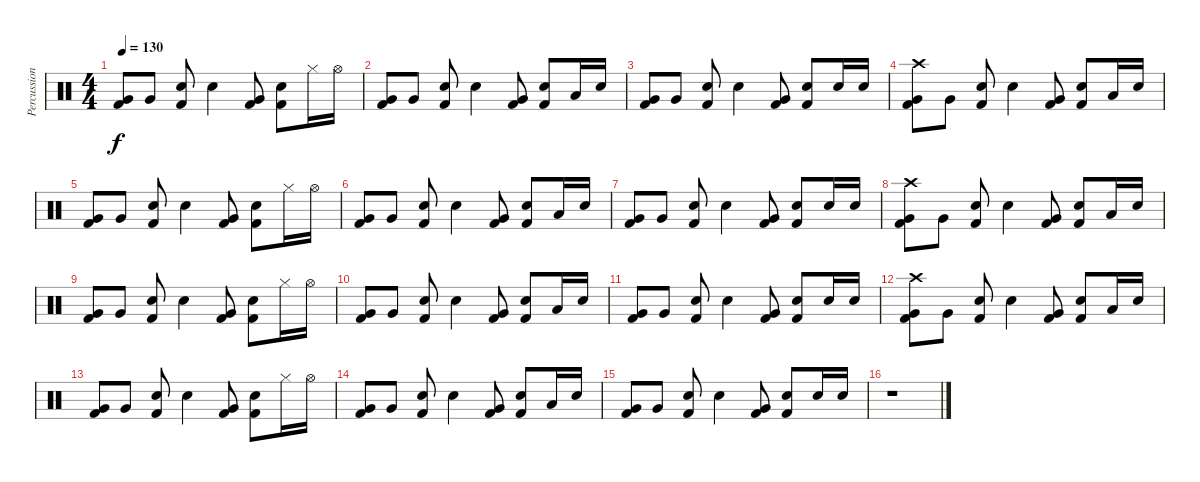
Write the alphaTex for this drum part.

\track ("Percussion" "Percussion") {instrument percussion}
\staff {score}
\articulation defaults
\ts (4 4)
\tempo 130
\clef neutral
\ks c
("Very Low Tom (hit)" "Kick (hit) 2").8{dy f} "Very Low Tom (hit)".8 ("Electric Snare (hit)" "Kick (hit) 2").8 "Electric Snare (hit)".4 ("Very Low Tom (hit)" "Kick (hit) 2").8 ("Electric Snare (hit)" "Kick (hit) 2").8 "Hi-Hat (closed)".16 "Hi-Hat (open)".16 |
("Very Low Tom (hit)" "Kick (hit) 2").8 "Very Low Tom (hit)".8 ("Electric Snare (hit)" "Kick (hit) 2").8 "Electric Snare (hit)".4 ("Very Low Tom (hit)" "Kick (hit) 2").8 ("Electric Snare (hit)" "Kick (hit) 2").8 "Low Floor Tom (hit)".16 "Electric Snare (hit)".16 |
("Very Low Tom (hit)" "Kick (hit) 2").8 "Very Low Tom (hit)".8 ("Electric Snare (hit)" "Kick (hit) 2").8 "Electric Snare (hit)".4 ("Very Low Tom (hit)" "Kick (hit) 2").8 ("Electric Snare (hit)" "Kick (hit) 2").8 "Electric Snare (hit)".16 "Electric Snare (hit)".16 |
("Crash high (hit)" "Very Low Tom (hit)" "Kick (hit) 2").8 "Very Low Tom (hit)".8 ("Electric Snare (hit)" "Kick (hit) 2").8 "Electric Snare (hit)".4 ("Very Low Tom (hit)" "Kick (hit) 2").8 ("Electric Snare (hit)" "Kick (hit) 2").8 "Low Floor Tom (hit)".16 "Electric Snare (hit)".16 |
("Very Low Tom (hit)" "Kick (hit) 2").8 "Very Low Tom (hit)".8 ("Electric Snare (hit)" "Kick (hit) 2").8 "Electric Snare (hit)".4 ("Very Low Tom (hit)" "Kick (hit) 2").8 ("Electric Snare (hit)" "Kick (hit) 2").8 "Hi-Hat (closed)".16 "Hi-Hat (open)".16 |
("Very Low Tom (hit)" "Kick (hit) 2").8 "Very Low Tom (hit)".8 ("Electric Snare (hit)" "Kick (hit) 2").8 "Electric Snare (hit)".4 ("Very Low Tom (hit)" "Kick (hit) 2").8 ("Electric Snare (hit)" "Kick (hit) 2").8 "Low Floor Tom (hit)".16 "Electric Snare (hit)".16 |
("Very Low Tom (hit)" "Kick (hit) 2").8 "Very Low Tom (hit)".8 ("Electric Snare (hit)" "Kick (hit) 2").8 "Electric Snare (hit)".4 ("Very Low Tom (hit)" "Kick (hit) 2").8 ("Electric Snare (hit)" "Kick (hit) 2").8 "Electric Snare (hit)".16 "Electric Snare (hit)".16 |
("Crash high (hit)" "Very Low Tom (hit)" "Kick (hit) 2").8 "Very Low Tom (hit)".8 ("Electric Snare (hit)" "Kick (hit) 2").8 "Electric Snare (hit)".4 ("Very Low Tom (hit)" "Kick (hit) 2").8 ("Electric Snare (hit)" "Kick (hit) 2").8 "Low Floor Tom (hit)".16 "Electric Snare (hit)".16 |
("Very Low Tom (hit)" "Kick (hit) 2").8 "Very Low Tom (hit)".8 ("Electric Snare (hit)" "Kick (hit) 2").8 "Electric Snare (hit)".4 ("Very Low Tom (hit)" "Kick (hit) 2").8 ("Electric Snare (hit)" "Kick (hit) 2").8 "Hi-Hat (closed)".16 "Hi-Hat (open)".16 |
("Very Low Tom (hit)" "Kick (hit) 2").8 "Very Low Tom (hit)".8 ("Electric Snare (hit)" "Kick (hit) 2").8 "Electric Snare (hit)".4 ("Very Low Tom (hit)" "Kick (hit) 2").8 ("Electric Snare (hit)" "Kick (hit) 2").8 "Low Floor Tom (hit)".16 "Electric Snare (hit)".16 |
("Very Low Tom (hit)" "Kick (hit) 2").8 "Very Low Tom (hit)".8 ("Electric Snare (hit)" "Kick (hit) 2").8 "Electric Snare (hit)".4 ("Very Low Tom (hit)" "Kick (hit) 2").8 ("Electric Snare (hit)" "Kick (hit) 2").8 "Electric Snare (hit)".16 "Electric Snare (hit)".16 |
("Crash high (hit)" "Very Low Tom (hit)" "Kick (hit) 2").8 "Very Low Tom (hit)".8 ("Electric Snare (hit)" "Kick (hit) 2").8 "Electric Snare (hit)".4 ("Very Low Tom (hit)" "Kick (hit) 2").8 ("Electric Snare (hit)" "Kick (hit) 2").8 "Low Floor Tom (hit)".16 "Electric Snare (hit)".16 |
("Very Low Tom (hit)" "Kick (hit) 2").8 "Very Low Tom (hit)".8 ("Electric Snare (hit)" "Kick (hit) 2").8 "Electric Snare (hit)".4 ("Very Low Tom (hit)" "Kick (hit) 2").8 ("Electric Snare (hit)" "Kick (hit) 2").8 "Hi-Hat (closed)".16 "Hi-Hat (open)".16 |
("Very Low Tom (hit)" "Kick (hit) 2").8 "Very Low Tom (hit)".8 ("Electric Snare (hit)" "Kick (hit) 2").8 "Electric Snare (hit)".4 ("Very Low Tom (hit)" "Kick (hit) 2").8 ("Electric Snare (hit)" "Kick (hit) 2").8 "Low Floor Tom (hit)".16 "Electric Snare (hit)".16 |
("Very Low Tom (hit)" "Kick (hit) 2").8 "Very Low Tom (hit)".8 ("Electric Snare (hit)" "Kick (hit) 2").8 "Electric Snare (hit)".4 ("Very Low Tom (hit)" "Kick (hit) 2").8 ("Electric Snare (hit)" "Kick (hit) 2").8 "Electric Snare (hit)".16 "Electric Snare (hit)".16 |
r.1
